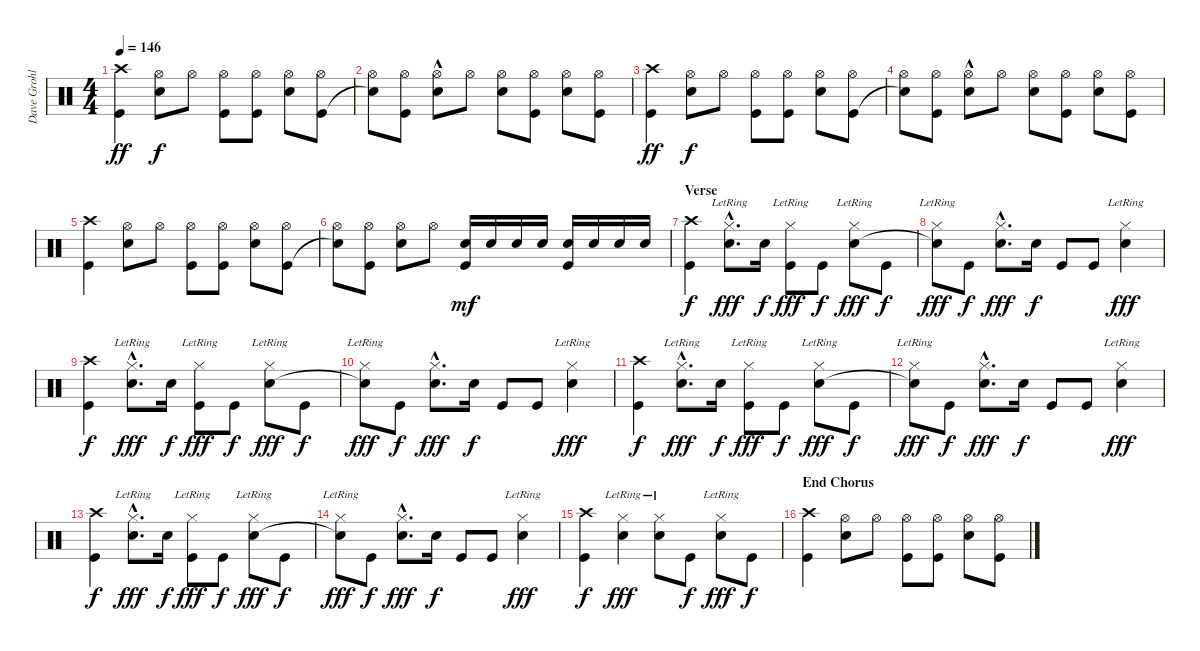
\track ("Dave Grohl - Drums" "Dave Grohl") {instrument percussion}
\staff {score}
\articulation defaults
\ts (4 4)
\tempo 146
\clef neutral
\ks c
("Crash high (hit)" "Kick (hit)").4{dy ff} ("Hi-Hat (open)" "Electric Snare (hit)").8{dy f} "Hi-Hat (open)".8 ("Hi-Hat (open)" "Kick (hit)").8 ("Hi-Hat (open)" "Kick (hit)").8 ("Hi-Hat (open)" "Electric Snare (hit)").8 ("Hi-Hat (open)" "Kick (hit)").8 |
("Hi-Hat (open)" "Snare (hit)"{t}).8 ("Hi-Hat (open)" "Kick (hit)").8 ("Hi-Hat (open)"{hac} "Electric Snare (hit)").8 "Hi-Hat (open)".8 ("Hi-Hat (open)" "Electric Snare (hit)").8 ("Hi-Hat (open)" "Kick (hit)").8 ("Hi-Hat (open)" "Electric Snare (hit)").8 ("Hi-Hat (open)" "Kick (hit)").8 |
("Crash high (hit)" "Kick (hit)").4{dy ff} ("Hi-Hat (open)" "Electric Snare (hit)").8{dy f} "Hi-Hat (open)".8 ("Hi-Hat (open)" "Kick (hit)").8 ("Hi-Hat (open)" "Kick (hit)").8 ("Hi-Hat (open)" "Electric Snare (hit)").8 ("Hi-Hat (open)" "Kick (hit)").8 |
("Hi-Hat (open)" "Snare (hit)"{t}).8 ("Hi-Hat (open)" "Kick (hit)").8 ("Hi-Hat (open)"{hac} "Electric Snare (hit)").8 "Hi-Hat (open)".8 ("Hi-Hat (open)" "Electric Snare (hit)").8 ("Hi-Hat (open)" "Kick (hit)").8 ("Hi-Hat (open)" "Electric Snare (hit)").8 ("Hi-Hat (open)" "Kick (hit)").8 |
("Crash high (hit)" "Kick (hit)").4 ("Hi-Hat (open)" "Electric Snare (hit)").8 "Hi-Hat (open)".8 ("Hi-Hat (open)" "Kick (hit)").8 ("Hi-Hat (open)" "Kick (hit)").8 ("Hi-Hat (open)" "Electric Snare (hit)").8 ("Hi-Hat (open)" "Kick (hit)").8 |
("Hi-Hat (open)" "Snare (hit)"{t}).8 ("Hi-Hat (open)" "Kick (hit)").8 ("Hi-Hat (open)" "Electric Snare (hit)").8 "Hi-Hat (open)".8 ("Electric Snare (hit)" "Kick (hit)").16{dy mf} "Electric Snare (hit)".16 "Electric Snare (hit)".16 "Electric Snare (hit)".16 ("Electric Snare (hit)" "Kick (hit)").16 "Electric Snare (hit)".16 "Electric Snare (hit)".16 "Electric Snare (hit)".16 |
\section ("" "Verse")
("Crash high (hit)" "Kick (hit)").4{dy f} ("Hi-Hat (closed)"{hac lr} "Electric Snare (hit)"{hac}).8{d dy fff} "Electric Snare (hit)".16{dy f} ("Hi-Hat (closed)"{lr} "Kick (hit)").8{dy fff} "Kick (hit)".8{dy f} ("Hi-Hat (closed)"{lr} "Electric Snare (hit)").8{dy fff} "Kick (hit)".8{dy f} |
("Hi-Hat (closed)"{lr} "Snare (hit)"{t}).8{dy fff} "Kick (hit)".8{dy f} ("Hi-Hat (closed)"{hac} "Electric Snare (hit)"{hac}).8{d dy fff} "Electric Snare (hit)".16{dy f} "Kick (hit)".8 "Kick (hit)".8 ("Hi-Hat (closed)"{lr} "Electric Snare (hit)").4{dy fff} |
("Crash high (hit)" "Kick (hit)").4{dy f} ("Hi-Hat (closed)"{hac lr} "Electric Snare (hit)"{hac}).8{d dy fff} "Electric Snare (hit)".16{dy f} ("Hi-Hat (closed)"{lr} "Kick (hit)").8{dy fff} "Kick (hit)".8{dy f} ("Hi-Hat (closed)"{lr} "Electric Snare (hit)").8{dy fff} "Kick (hit)".8{dy f} |
("Hi-Hat (closed)"{lr} "Snare (hit)"{t}).8{dy fff} "Kick (hit)".8{dy f} ("Hi-Hat (closed)"{hac} "Electric Snare (hit)"{hac}).8{d dy fff} "Electric Snare (hit)".16{dy f} "Kick (hit)".8 "Kick (hit)".8 ("Hi-Hat (closed)"{lr} "Electric Snare (hit)").4{dy fff} |
("Crash high (hit)" "Kick (hit)").4{dy f} ("Hi-Hat (closed)"{hac lr} "Electric Snare (hit)"{hac}).8{d dy fff} "Electric Snare (hit)".16{dy f} ("Hi-Hat (closed)"{lr} "Kick (hit)").8{dy fff} "Kick (hit)".8{dy f} ("Hi-Hat (closed)"{lr} "Electric Snare (hit)").8{dy fff} "Kick (hit)".8{dy f} |
("Hi-Hat (closed)"{lr} "Snare (hit)"{t}).8{dy fff} "Kick (hit)".8{dy f} ("Hi-Hat (closed)"{hac} "Electric Snare (hit)"{hac}).8{d dy fff} "Electric Snare (hit)".16{dy f} "Kick (hit)".8 "Kick (hit)".8 ("Hi-Hat (closed)"{lr} "Electric Snare (hit)").4{dy fff} |
("Crash high (hit)" "Kick (hit)").4{dy f} ("Hi-Hat (closed)"{hac lr} "Electric Snare (hit)"{hac}).8{d dy fff} "Electric Snare (hit)".16{dy f} ("Hi-Hat (closed)"{lr} "Kick (hit)").8{dy fff} "Kick (hit)".8{dy f} ("Hi-Hat (closed)"{lr} "Electric Snare (hit)").8{dy fff} "Kick (hit)".8{dy f} |
("Hi-Hat (closed)"{lr} "Snare (hit)"{t}).8{dy fff} "Kick (hit)".8{dy f} ("Hi-Hat (closed)"{hac} "Electric Snare (hit)"{hac}).8{d dy fff} "Electric Snare (hit)".16{dy f} "Kick (hit)".8 "Kick (hit)".8 ("Hi-Hat (closed)"{lr} "Electric Snare (hit)").4{dy fff} |
("Crash high (hit)" "Kick (hit)").4{dy f} ("Hi-Hat (closed)"{lr} "Electric Snare (hit)").4{dy fff} ("Hi-Hat (closed)"{lr} "Electric Snare (hit)").8 "Kick (hit)".8{dy f} ("Hi-Hat (closed)"{lr} "Electric Snare (hit)").8{dy fff} "Kick (hit)".8{dy f} |
\section ("" "End Chorus")
("Crash high (hit)" "Kick (hit)").4 ("Hi-Hat (open)" "Electric Snare (hit)").8 "Hi-Hat (open)".8 ("Hi-Hat (open)" "Kick (hit)").8 ("Hi-Hat (open)" "Kick (hit)").8 ("Hi-Hat (open)" "Electric Snare (hit)").8 ("Hi-Hat (open)" "Kick (hit)").8
